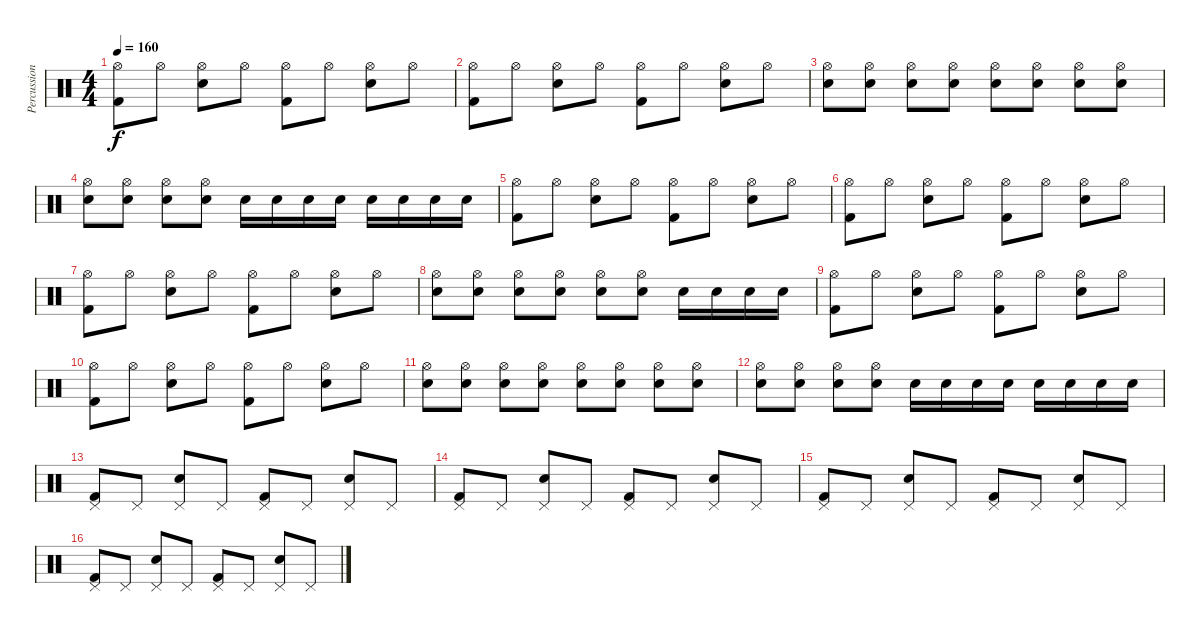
\track ("Percussion" "Percussion") {instrument percussion}
\staff {score}
\articulation defaults
\ts (4 4)
\tempo 160
\clef neutral
\ks c
("Hi-Hat (open)" "Kick (hit) 2").8{dy f} "Hi-Hat (open)".8 ("Hi-Hat (open)" "Electric Snare (hit)").8 "Hi-Hat (open)".8 ("Hi-Hat (open)" "Kick (hit) 2").8 "Hi-Hat (open)".8 ("Hi-Hat (open)" "Electric Snare (hit)").8 "Hi-Hat (open)".8 |
("Hi-Hat (open)" "Kick (hit) 2").8 "Hi-Hat (open)".8 ("Hi-Hat (open)" "Electric Snare (hit)").8 "Hi-Hat (open)".8 ("Hi-Hat (open)" "Kick (hit) 2").8 "Hi-Hat (open)".8 ("Hi-Hat (open)" "Electric Snare (hit)").8 "Hi-Hat (open)".8 |
("Hi-Hat (open)" "Electric Snare (hit)").8 ("Hi-Hat (open)" "Electric Snare (hit)").8 ("Hi-Hat (open)" "Electric Snare (hit)").8 ("Hi-Hat (open)" "Electric Snare (hit)").8 ("Hi-Hat (open)" "Electric Snare (hit)").8 ("Hi-Hat (open)" "Electric Snare (hit)").8 ("Hi-Hat (open)" "Electric Snare (hit)").8 ("Hi-Hat (open)" "Electric Snare (hit)").8 |
("Hi-Hat (open)" "Electric Snare (hit)").8 ("Hi-Hat (open)" "Electric Snare (hit)").8 ("Hi-Hat (open)" "Electric Snare (hit)").8 ("Hi-Hat (open)" "Electric Snare (hit)").8 "Electric Snare (hit)".16 "Electric Snare (hit)".16 "Electric Snare (hit)".16 "Electric Snare (hit)".16 "Electric Snare (hit)".16 "Electric Snare (hit)".16 "Electric Snare (hit)".16 "Electric Snare (hit)".16 |
("Hi-Hat (open)" "Kick (hit) 2").8 "Hi-Hat (open)".8 ("Hi-Hat (open)" "Electric Snare (hit)").8 "Hi-Hat (open)".8 ("Hi-Hat (open)" "Kick (hit) 2").8 "Hi-Hat (open)".8 ("Hi-Hat (open)" "Electric Snare (hit)").8 "Hi-Hat (open)".8 |
("Hi-Hat (open)" "Kick (hit) 2").8 "Hi-Hat (open)".8 ("Hi-Hat (open)" "Electric Snare (hit)").8 "Hi-Hat (open)".8 ("Hi-Hat (open)" "Kick (hit) 2").8 "Hi-Hat (open)".8 ("Hi-Hat (open)" "Electric Snare (hit)").8 "Hi-Hat (open)".8 |
("Hi-Hat (open)" "Kick (hit) 2").8 "Hi-Hat (open)".8 ("Hi-Hat (open)" "Electric Snare (hit)").8 "Hi-Hat (open)".8 ("Hi-Hat (open)" "Kick (hit) 2").8 "Hi-Hat (open)".8 ("Hi-Hat (open)" "Electric Snare (hit)").8 "Hi-Hat (open)".8 |
("Hi-Hat (open)" "Electric Snare (hit)").8 ("Hi-Hat (open)" "Electric Snare (hit)").8 ("Hi-Hat (open)" "Electric Snare (hit)").8 ("Hi-Hat (open)" "Electric Snare (hit)").8 ("Hi-Hat (open)" "Electric Snare (hit)").8 ("Hi-Hat (open)" "Electric Snare (hit)").8 "Electric Snare (hit)".16 "Electric Snare (hit)".16 "Electric Snare (hit)".16 "Electric Snare (hit)".16 |
("Hi-Hat (open)" "Kick (hit) 2").8 "Hi-Hat (open)".8 ("Hi-Hat (open)" "Electric Snare (hit)").8 "Hi-Hat (open)".8 ("Hi-Hat (open)" "Kick (hit) 2").8 "Hi-Hat (open)".8 ("Hi-Hat (open)" "Electric Snare (hit)").8 "Hi-Hat (open)".8 |
("Hi-Hat (open)" "Kick (hit) 2").8 "Hi-Hat (open)".8 ("Hi-Hat (open)" "Electric Snare (hit)").8 "Hi-Hat (open)".8 ("Hi-Hat (open)" "Kick (hit) 2").8 "Hi-Hat (open)".8 ("Hi-Hat (open)" "Electric Snare (hit)").8 "Hi-Hat (open)".8 |
("Hi-Hat (open)" "Electric Snare (hit)").8 ("Hi-Hat (open)" "Electric Snare (hit)").8 ("Hi-Hat (open)" "Electric Snare (hit)").8 ("Hi-Hat (open)" "Electric Snare (hit)").8 ("Hi-Hat (open)" "Electric Snare (hit)").8 ("Hi-Hat (open)" "Electric Snare (hit)").8 ("Hi-Hat (open)" "Electric Snare (hit)").8 ("Hi-Hat (open)" "Electric Snare (hit)").8 |
("Hi-Hat (open)" "Electric Snare (hit)").8 ("Hi-Hat (open)" "Electric Snare (hit)").8 ("Hi-Hat (open)" "Electric Snare (hit)").8 ("Hi-Hat (open)" "Electric Snare (hit)").8 "Electric Snare (hit)".16 "Electric Snare (hit)".16 "Electric Snare (hit)".16 "Electric Snare (hit)".16 "Electric Snare (hit)".16 "Electric Snare (hit)".16 "Electric Snare (hit)".16 "Electric Snare (hit)".16 |
("Pedal Hi-Hat (hit)" "Kick (hit) 2").8 "Pedal Hi-Hat (hit)".8 ("Pedal Hi-Hat (hit)" "Electric Snare (hit)").8 "Pedal Hi-Hat (hit)".8 ("Pedal Hi-Hat (hit)" "Kick (hit) 2").8 "Pedal Hi-Hat (hit)".8 ("Pedal Hi-Hat (hit)" "Electric Snare (hit)").8 "Pedal Hi-Hat (hit)".8 |
("Pedal Hi-Hat (hit)" "Kick (hit) 2").8 "Pedal Hi-Hat (hit)".8 ("Pedal Hi-Hat (hit)" "Electric Snare (hit)").8 "Pedal Hi-Hat (hit)".8 ("Pedal Hi-Hat (hit)" "Kick (hit) 2").8 "Pedal Hi-Hat (hit)".8 ("Pedal Hi-Hat (hit)" "Electric Snare (hit)").8 "Pedal Hi-Hat (hit)".8 |
("Pedal Hi-Hat (hit)" "Kick (hit) 2").8 "Pedal Hi-Hat (hit)".8 ("Pedal Hi-Hat (hit)" "Electric Snare (hit)").8 "Pedal Hi-Hat (hit)".8 ("Pedal Hi-Hat (hit)" "Kick (hit) 2").8 "Pedal Hi-Hat (hit)".8 ("Pedal Hi-Hat (hit)" "Electric Snare (hit)").8 "Pedal Hi-Hat (hit)".8 |
("Pedal Hi-Hat (hit)" "Kick (hit) 2").8 "Pedal Hi-Hat (hit)".8 ("Pedal Hi-Hat (hit)" "Electric Snare (hit)").8 "Pedal Hi-Hat (hit)".8 ("Pedal Hi-Hat (hit)" "Kick (hit) 2").8 "Pedal Hi-Hat (hit)".8 ("Pedal Hi-Hat (hit)" "Electric Snare (hit)").8 "Pedal Hi-Hat (hit)".8
